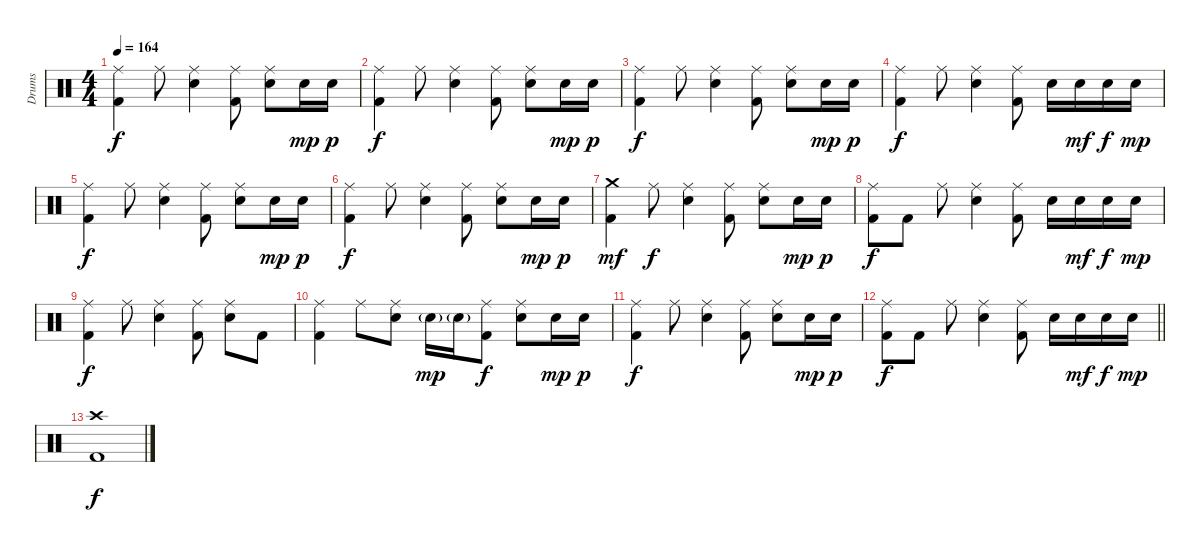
\track ("Drums" "Drums") {instrument percussion}
\staff {score}
\articulation defaults
\ts (4 4)
\tempo 164
\clef neutral
\ks c
("Ride (middle)" "Kick (hit) 2").4{dy f} "Ride (middle)".8 ("Ride (middle)" "Electric Snare (hit)").4 ("Ride (middle)" "Kick (hit) 2").8 ("Ride (middle)" "Electric Snare (hit)").8 "Electric Snare (hit)".16{dy mp} "Electric Snare (hit)".16{dy p} |
("Ride (middle)" "Kick (hit) 2").4{dy f} "Ride (middle)".8 ("Ride (middle)" "Electric Snare (hit)").4 ("Ride (middle)" "Kick (hit) 2").8 ("Ride (middle)" "Electric Snare (hit)").8 "Electric Snare (hit)".16{dy mp} "Electric Snare (hit)".16{dy p} |
("Ride (middle)" "Kick (hit) 2").4{dy f} "Ride (middle)".8 ("Ride (middle)" "Electric Snare (hit)").4 ("Ride (middle)" "Kick (hit) 2").8 ("Ride (middle)" "Electric Snare (hit)").8 "Electric Snare (hit)".16{dy mp} "Electric Snare (hit)".16{dy p} |
("Ride (middle)" "Kick (hit) 2").4{dy f} "Ride (middle)".8 ("Ride (middle)" "Electric Snare (hit)").4 ("Ride (middle)" "Kick (hit) 2").8 "Electric Snare (hit)".16 "Electric Snare (hit)".16{dy mf} "Electric Snare (hit)".16{dy f} "Electric Snare (hit)".16{dy mp} |
("Ride (middle)" "Kick (hit) 2").4{dy f} "Ride (middle)".8 ("Ride (middle)" "Electric Snare (hit)").4 ("Ride (middle)" "Kick (hit) 2").8 ("Ride (middle)" "Electric Snare (hit)").8 "Electric Snare (hit)".16{dy mp} "Electric Snare (hit)".16{dy p} |
("Ride (middle)" "Kick (hit) 2").4{dy f} "Ride (middle)".8 ("Ride (middle)" "Electric Snare (hit)").4 ("Ride (middle)" "Kick (hit) 2").8 ("Ride (middle)" "Electric Snare (hit)").8 "Electric Snare (hit)".16{dy mp} "Electric Snare (hit)".16{dy p} |
("Crash medium (hit)" "Kick (hit) 2").4{dy mf} "Ride (middle)".8{dy f} ("Ride (middle)" "Electric Snare (hit)").4 ("Ride (middle)" "Kick (hit) 2").8 ("Ride (middle)" "Electric Snare (hit)").8 "Electric Snare (hit)".16{dy mp} "Electric Snare (hit)".16{dy p} |
("Ride (middle)" "Kick (hit) 2").8{dy f} "Kick (hit) 2".8 "Ride (middle)".8 ("Ride (middle)" "Electric Snare (hit)").4 ("Ride (middle)" "Kick (hit) 2").8 "Electric Snare (hit)".16 "Electric Snare (hit)".16{dy mf} "Electric Snare (hit)".16{dy f} "Electric Snare (hit)".16{dy mp} |
("Ride (middle)" "Kick (hit) 2").4{dy f} "Ride (middle)".8 ("Ride (middle)" "Electric Snare (hit)").4 ("Ride (middle)" "Kick (hit) 2").8 ("Ride (middle)" "Electric Snare (hit)").8 "Kick (hit) 2".8 |
("Ride (middle)" "Kick (hit) 2").4 "Ride (middle)".8 ("Ride (middle)" "Electric Snare (hit)").8 "Electric Snare (hit)"{g}.16{dy mp} "Electric Snare (hit)"{g}.16 ("Ride (middle)" "Kick (hit) 2").8{dy f} ("Ride (middle)" "Electric Snare (hit)").8 "Electric Snare (hit)".16{dy mp} "Electric Snare (hit)".16{dy p} |
("Ride (middle)" "Kick (hit) 2").4{dy f} "Ride (middle)".8 ("Ride (middle)" "Electric Snare (hit)").4 ("Ride (middle)" "Kick (hit) 2").8 ("Ride (middle)" "Electric Snare (hit)").8 "Electric Snare (hit)".16{dy mp} "Electric Snare (hit)".16{dy p} |
\barLineRight lightlight
("Ride (middle)" "Kick (hit) 2").8{dy f} "Kick (hit) 2".8 "Ride (middle)".8 ("Ride (middle)" "Electric Snare (hit)").4 ("Ride (middle)" "Kick (hit) 2").8 "Electric Snare (hit)".16 "Electric Snare (hit)".16{dy mf} "Electric Snare (hit)".16{dy f} "Electric Snare (hit)".16{dy mp} |
\section ("" "")
("Crash high (hit)" "Kick (hit) 2").1{dy f}
